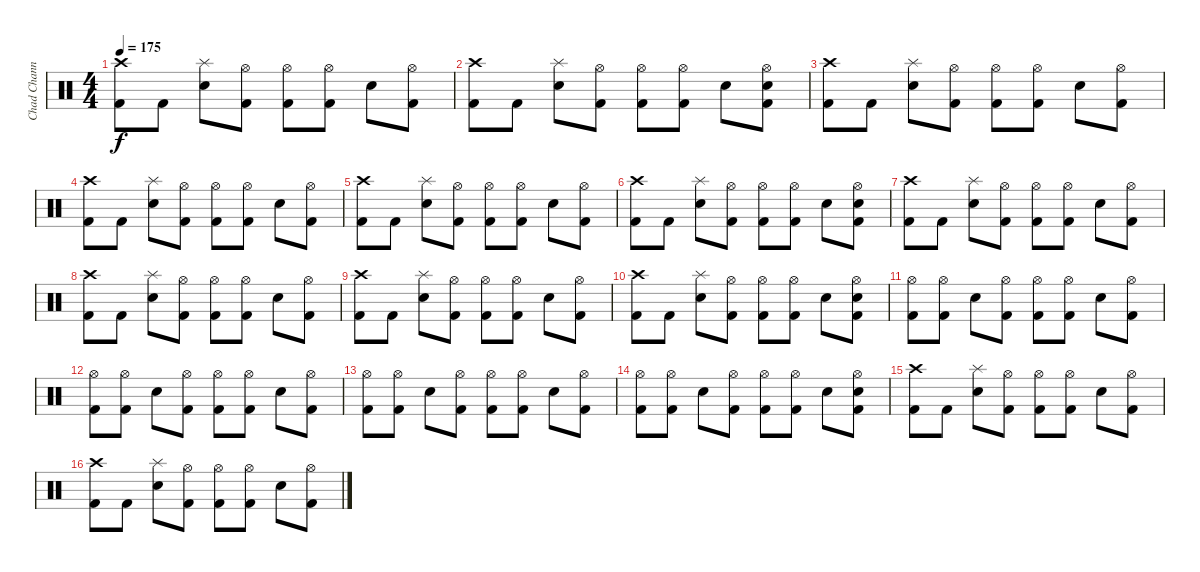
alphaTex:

\track ("Chad Channing" "Chad Chann") {instrument percussion}
\staff {score}
\articulation defaults
\ts (4 4)
\tempo 175
\clef neutral
\ks c
("Crash high (hit)" "Kick (hit) 2").8{dy f} "Kick (hit) 2".8 ("Splash (hit)" "Snare (hit) 2").8 ("Hi-Hat (open)" "Kick (hit) 2").8 ("Hi-Hat (open)" "Kick (hit) 2").8 ("Hi-Hat (open)" "Kick (hit) 2").8 "Snare (hit) 2".8 ("Hi-Hat (open)" "Kick (hit) 2").8 |
("Crash high (hit)" "Kick (hit) 2").8 "Kick (hit) 2".8 ("Splash (hit)" "Snare (hit) 2").8 ("Hi-Hat (open)" "Kick (hit) 2").8 ("Hi-Hat (open)" "Kick (hit) 2").8 ("Hi-Hat (open)" "Kick (hit) 2").8 "Snare (hit) 2".8 ("Hi-Hat (open)" "Snare (hit) 2" "Kick (hit) 2").8 |
("Crash high (hit)" "Kick (hit) 2").8 "Kick (hit) 2".8 ("Splash (hit)" "Snare (hit) 2").8 ("Hi-Hat (open)" "Kick (hit) 2").8 ("Hi-Hat (open)" "Kick (hit) 2").8 ("Hi-Hat (open)" "Kick (hit) 2").8 "Snare (hit) 2".8 ("Hi-Hat (open)" "Kick (hit) 2").8 |
("Crash high (hit)" "Kick (hit) 2").8 "Kick (hit) 2".8 ("Splash (hit)" "Snare (hit) 2").8 ("Hi-Hat (open)" "Kick (hit) 2").8 ("Hi-Hat (open)" "Kick (hit) 2").8 ("Hi-Hat (open)" "Kick (hit) 2").8 "Snare (hit) 2".8 ("Hi-Hat (open)" "Kick (hit) 2").8 |
("Crash high (hit)" "Kick (hit) 2").8 "Kick (hit) 2".8 ("Splash (hit)" "Snare (hit) 2").8 ("Hi-Hat (open)" "Kick (hit) 2").8 ("Hi-Hat (open)" "Kick (hit) 2").8 ("Hi-Hat (open)" "Kick (hit) 2").8 "Snare (hit) 2".8 ("Hi-Hat (open)" "Kick (hit) 2").8 |
("Crash high (hit)" "Kick (hit) 2").8 "Kick (hit) 2".8 ("Splash (hit)" "Snare (hit) 2").8 ("Hi-Hat (open)" "Kick (hit) 2").8 ("Hi-Hat (open)" "Kick (hit) 2").8 ("Hi-Hat (open)" "Kick (hit) 2").8 "Snare (hit) 2".8 ("Hi-Hat (open)" "Snare (hit) 2" "Kick (hit) 2").8 |
("Crash high (hit)" "Kick (hit) 2").8 "Kick (hit) 2".8 ("Splash (hit)" "Snare (hit) 2").8 ("Hi-Hat (open)" "Kick (hit) 2").8 ("Hi-Hat (open)" "Kick (hit) 2").8 ("Hi-Hat (open)" "Kick (hit) 2").8 "Snare (hit) 2".8 ("Hi-Hat (open)" "Kick (hit) 2").8 |
("Crash high (hit)" "Kick (hit) 2").8 "Kick (hit) 2".8 ("Splash (hit)" "Snare (hit) 2").8 ("Hi-Hat (open)" "Kick (hit) 2").8 ("Hi-Hat (open)" "Kick (hit) 2").8 ("Hi-Hat (open)" "Kick (hit) 2").8 "Snare (hit) 2".8 ("Hi-Hat (open)" "Kick (hit) 2").8 |
("Crash high (hit)" "Kick (hit) 2").8 "Kick (hit) 2".8 ("Splash (hit)" "Snare (hit) 2").8 ("Hi-Hat (open)" "Kick (hit) 2").8 ("Hi-Hat (open)" "Kick (hit) 2").8 ("Hi-Hat (open)" "Kick (hit) 2").8 "Snare (hit) 2".8 ("Hi-Hat (open)" "Kick (hit) 2").8 |
("Crash high (hit)" "Kick (hit) 2").8 "Kick (hit) 2".8 ("Splash (hit)" "Snare (hit) 2").8 ("Hi-Hat (open)" "Kick (hit) 2").8 ("Hi-Hat (open)" "Kick (hit) 2").8 ("Hi-Hat (open)" "Kick (hit) 2").8 "Snare (hit) 2".8 ("Hi-Hat (open)" "Snare (hit) 2" "Kick (hit) 2").8 |
("Hi-Hat (open)" "Kick (hit) 2").8 ("Hi-Hat (open)" "Kick (hit) 2").8 "Snare (hit) 2".8 ("Hi-Hat (open)" "Kick (hit) 2").8 ("Hi-Hat (open)" "Kick (hit) 2").8 ("Hi-Hat (open)" "Kick (hit) 2").8 "Snare (hit) 2".8 ("Hi-Hat (open)" "Kick (hit) 2").8 |
("Hi-Hat (open)" "Kick (hit) 2").8 ("Hi-Hat (open)" "Kick (hit) 2").8 "Snare (hit) 2".8 ("Hi-Hat (open)" "Kick (hit) 2").8 ("Hi-Hat (open)" "Kick (hit) 2").8 ("Hi-Hat (open)" "Kick (hit) 2").8 "Snare (hit) 2".8 ("Hi-Hat (open)" "Kick (hit) 2").8 |
("Hi-Hat (open)" "Kick (hit) 2").8 ("Hi-Hat (open)" "Kick (hit) 2").8 "Snare (hit) 2".8 ("Hi-Hat (open)" "Kick (hit) 2").8 ("Hi-Hat (open)" "Kick (hit) 2").8 ("Hi-Hat (open)" "Kick (hit) 2").8 "Snare (hit) 2".8 ("Hi-Hat (open)" "Kick (hit) 2").8 |
("Hi-Hat (open)" "Kick (hit) 2").8 ("Hi-Hat (open)" "Kick (hit) 2").8 "Snare (hit) 2".8 ("Hi-Hat (open)" "Kick (hit) 2").8 ("Hi-Hat (open)" "Kick (hit) 2").8 ("Hi-Hat (open)" "Kick (hit) 2").8 "Snare (hit) 2".8 ("Hi-Hat (open)" "Snare (hit) 2" "Kick (hit) 2").8 |
("Crash high (hit)" "Kick (hit) 2").8 "Kick (hit) 2".8 ("Splash (hit)" "Snare (hit) 2").8 ("Hi-Hat (open)" "Kick (hit) 2").8 ("Hi-Hat (open)" "Kick (hit) 2").8 ("Hi-Hat (open)" "Kick (hit) 2").8 "Snare (hit) 2".8 ("Hi-Hat (open)" "Kick (hit) 2").8 |
("Crash high (hit)" "Kick (hit) 2").8 "Kick (hit) 2".8 ("Splash (hit)" "Snare (hit) 2").8 ("Hi-Hat (open)" "Kick (hit) 2").8 ("Hi-Hat (open)" "Kick (hit) 2").8 ("Hi-Hat (open)" "Kick (hit) 2").8 "Snare (hit) 2".8 ("Hi-Hat (open)" "Kick (hit) 2").8
